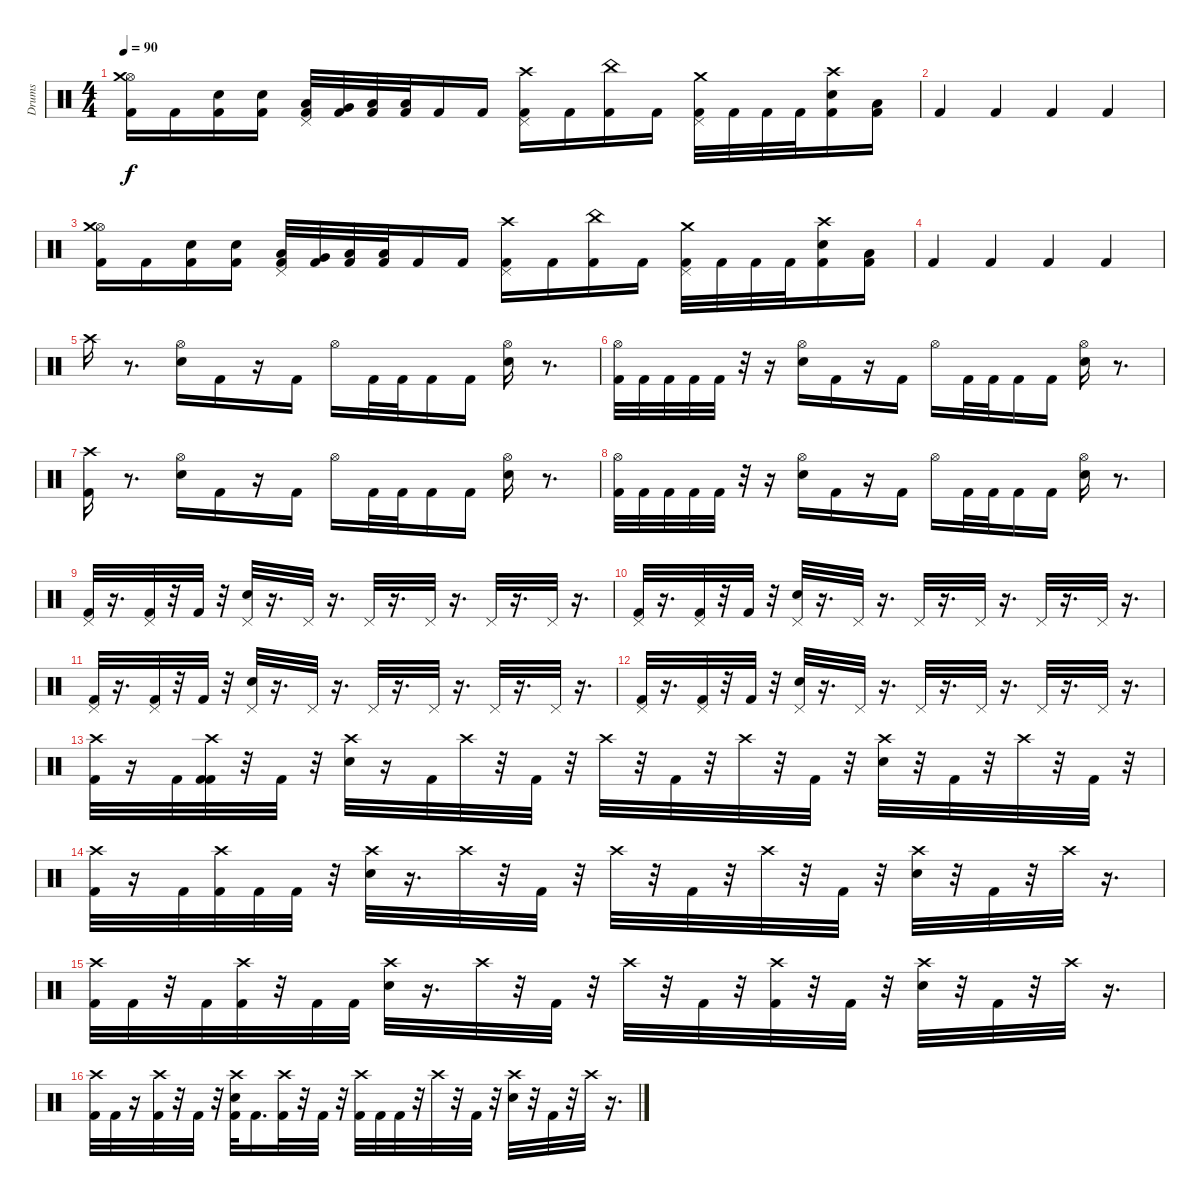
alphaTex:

\track ("Drums" "Drums") {instrument percussion}
\staff {score}
\articulation defaults
\ts (4 4)
\tempo 90
\clef neutral
\ks c
("Kick (hit) 2" "Hi-Hat (open)" "Crash medium (hit)").16{dy f} "Kick (hit) 2".16 ("Kick (hit) 2" "Electric Snare (hit)").16 ("Kick (hit) 2" "Electric Snare (hit)").16 ("Kick (hit) 2" "Pedal Hi-Hat (hit)" "Low Tom (hit)").32 ("Kick (hit) 2" "Very Low Tom (hit)").32 ("Kick (hit) 2" "Low Floor Tom (hit)").32 ("Kick (hit) 2" "Low Floor Tom (hit)").32 "Kick (hit) 2".16 "Kick (hit) 2".16 ("Kick (hit) 2" "Pedal Hi-Hat (hit)" "Crash high (hit)").16 "Kick (hit) 2".16 ("Kick (hit) 2" "China (hit)").16 "Kick (hit) 2".16 ("Kick (hit) 2" "Pedal Hi-Hat (hit)" "Crash medium (hit)").32 "Kick (hit) 2".32 "Kick (hit) 2".32 "Kick (hit) 2".32 ("Kick (hit) 2" "Electric Snare (hit)" "Crash high (hit)").16 ("Kick (hit) 2" "Low Floor Tom (hit)").16 |
"Kick (hit) 2".4 "Kick (hit) 2".4 "Kick (hit) 2".4 "Kick (hit) 2".4 |
("Kick (hit) 2" "Hi-Hat (open)" "Crash medium (hit)").16 "Kick (hit) 2".16 ("Kick (hit) 2" "Electric Snare (hit)").16 ("Kick (hit) 2" "Electric Snare (hit)").16 ("Kick (hit) 2" "Pedal Hi-Hat (hit)" "Low Tom (hit)").32 ("Kick (hit) 2" "Very Low Tom (hit)").32 ("Kick (hit) 2" "Low Floor Tom (hit)").32 ("Kick (hit) 2" "Low Floor Tom (hit)").32 "Kick (hit) 2".16 "Kick (hit) 2".16 ("Kick (hit) 2" "Pedal Hi-Hat (hit)" "Crash high (hit)").16 "Kick (hit) 2".16 ("Kick (hit) 2" "China (hit)").16 "Kick (hit) 2".16 ("Kick (hit) 2" "Pedal Hi-Hat (hit)" "Crash medium (hit)").32 "Kick (hit) 2".32 "Kick (hit) 2".32 "Kick (hit) 2".32 ("Kick (hit) 2" "Electric Snare (hit)" "Crash high (hit)").16 ("Kick (hit) 2" "Low Floor Tom (hit)").16 |
"Kick (hit) 2".4 "Kick (hit) 2".4 "Kick (hit) 2".4 "Kick (hit) 2".4 |
"Crash high (hit)".16 r.8{d} ("Electric Snare (hit)" "Hi-Hat (open)").16 "Kick (hit) 2".16 r.16 "Kick (hit) 2".16 "Hi-Hat (open)".16 "Kick (hit) 2".32 "Kick (hit) 2".32 "Kick (hit) 2".16 "Kick (hit) 2".16 ("Electric Snare (hit)" "Hi-Hat (open)").16 r.8{d} |
("Kick (hit) 2" "Hi-Hat (open)").32 "Kick (hit) 2".32 "Kick (hit) 2".32 "Kick (hit) 2".32 "Kick (hit) 2".32 r.32 r.16 ("Electric Snare (hit)" "Hi-Hat (open)").16 "Kick (hit) 2".16 r.16 "Kick (hit) 2".16 "Hi-Hat (open)".16 "Kick (hit) 2".32 "Kick (hit) 2".32 "Kick (hit) 2".16 "Kick (hit) 2".16 ("Electric Snare (hit)" "Hi-Hat (open)").16 r.8{d} |
("Crash high (hit)" "Kick (hit) 2").16 r.8{d} ("Electric Snare (hit)" "Hi-Hat (open)").16 "Kick (hit) 2".16 r.16 "Kick (hit) 2".16 "Hi-Hat (open)".16 "Kick (hit) 2".32 "Kick (hit) 2".32 "Kick (hit) 2".16 "Kick (hit) 2".16 ("Electric Snare (hit)" "Hi-Hat (open)").16 r.8{d} |
("Kick (hit) 2" "Hi-Hat (open)").32 "Kick (hit) 2".32 "Kick (hit) 2".32 "Kick (hit) 2".32 "Kick (hit) 2".32 r.32 r.16 ("Electric Snare (hit)" "Hi-Hat (open)").16 "Kick (hit) 2".16 r.16 "Kick (hit) 2".16 "Hi-Hat (open)".16 "Kick (hit) 2".32 "Kick (hit) 2".32 "Kick (hit) 2".16 "Kick (hit) 2".16 ("Electric Snare (hit)" "Hi-Hat (open)").16 r.8{d} |
("Kick (hit) 2" "Pedal Hi-Hat (hit)").32 r.16{d} ("Kick (hit) 2" "Pedal Hi-Hat (hit)").32 r.32 "Kick (hit) 2".32 r.32 ("Electric Snare (hit)" "Pedal Hi-Hat (hit)").32 r.16{d} "Pedal Hi-Hat (hit)".32 r.16{d} "Pedal Hi-Hat (hit)".32 r.16{d} "Pedal Hi-Hat (hit)".32 r.16{d} "Pedal Hi-Hat (hit)".32 r.16{d} "Pedal Hi-Hat (hit)".32 r.16{d} |
("Kick (hit) 2" "Pedal Hi-Hat (hit)").32 r.16{d} ("Kick (hit) 2" "Pedal Hi-Hat (hit)").32 r.32 "Kick (hit) 2".32 r.32 ("Electric Snare (hit)" "Pedal Hi-Hat (hit)").32 r.16{d} "Pedal Hi-Hat (hit)".32 r.16{d} "Pedal Hi-Hat (hit)".32 r.16{d} "Pedal Hi-Hat (hit)".32 r.16{d} "Pedal Hi-Hat (hit)".32 r.16{d} "Pedal Hi-Hat (hit)".32 r.16{d} |
("Kick (hit) 2" "Pedal Hi-Hat (hit)").32 r.16{d} ("Kick (hit) 2" "Pedal Hi-Hat (hit)").32 r.32 "Kick (hit) 2".32 r.32 ("Electric Snare (hit)" "Pedal Hi-Hat (hit)").32 r.16{d} "Pedal Hi-Hat (hit)".32 r.16{d} "Pedal Hi-Hat (hit)".32 r.16{d} "Pedal Hi-Hat (hit)".32 r.16{d} "Pedal Hi-Hat (hit)".32 r.16{d} "Pedal Hi-Hat (hit)".32 r.16{d} |
("Kick (hit) 2" "Pedal Hi-Hat (hit)").32 r.16{d} ("Kick (hit) 2" "Pedal Hi-Hat (hit)").32 r.32 "Kick (hit) 2".32 r.32 ("Electric Snare (hit)" "Pedal Hi-Hat (hit)").32 r.16{d} "Pedal Hi-Hat (hit)".32 r.16{d} "Pedal Hi-Hat (hit)".32 r.16{d} "Pedal Hi-Hat (hit)".32 r.16{d} "Pedal Hi-Hat (hit)".32 r.16{d} "Pedal Hi-Hat (hit)".32 r.16{d} |
("Kick (hit) 2" "Crash high (hit)").32 r.16 "Kick (hit) 2".32 ("Kick (hit) 2" "Kick (hit) 2" "Crash high (hit)").32 r.32 "Kick (hit) 2".32 r.32 ("Snare (hit) 2" "Crash high (hit)").32 r.16 "Kick (hit) 2".32 "Crash high (hit)".32 r.32 "Kick (hit) 2".32 r.32 "Crash high (hit)".32 r.32 "Kick (hit) 2".32 r.32 "Crash high (hit)".32 r.32 "Kick (hit) 2".32 r.32 ("Snare (hit) 2" "Crash high (hit)").32 r.32 "Kick (hit) 2".32 r.32 "Crash high (hit)".32 r.32 "Kick (hit) 2".32 r.32 |
("Kick (hit) 2" "Crash high (hit)").32 r.16 "Kick (hit) 2".32 ("Kick (hit) 2" "Crash high (hit)").32 "Kick (hit) 2".32 "Kick (hit) 2".32 r.32 ("Snare (hit) 2" "Crash high (hit)").32 r.16{d} "Crash high (hit)".32 r.32 "Kick (hit) 2".32 r.32 "Crash high (hit)".32 r.32 "Kick (hit) 2".32 r.32 "Crash high (hit)".32 r.32 "Kick (hit) 2".32 r.32 ("Snare (hit) 2" "Crash high (hit)").32 r.32 "Kick (hit) 2".32 r.32 "Crash high (hit)".32 r.16{d} |
("Kick (hit) 2" "Crash high (hit)").32 "Kick (hit) 2".32 r.32 "Kick (hit) 2".32 ("Kick (hit) 2" "Crash high (hit)").32 r.32 "Kick (hit) 2".32 "Kick (hit) 2".32 ("Snare (hit) 2" "Crash high (hit)").32 r.16{d} "Crash high (hit)".32 r.32 "Kick (hit) 2".32 r.32 "Crash high (hit)".32 r.32 "Kick (hit) 2".32 r.32 ("Kick (hit) 2" "Crash high (hit)").32 r.32 "Kick (hit) 2".32 r.32 ("Snare (hit) 2" "Crash high (hit)").32 r.32 "Kick (hit) 2".32 r.32 "Crash high (hit)".32 r.16{d} |
("Kick (hit) 2" "Crash high (hit)").32 "Kick (hit) 2".32 r.16 ("Kick (hit) 2" "Crash high (hit)").32 r.32 "Kick (hit) 2".32 r.32 ("Snare (hit) 2" "Crash high (hit)" "Kick (hit) 2").32 "Kick (hit) 2".16{d} ("Crash high (hit)" "Kick (hit) 2").32 r.32 "Kick (hit) 2".32 r.32 ("Crash high (hit)" "Kick (hit) 2").32 "Kick (hit) 2".32 "Kick (hit) 2".32 r.32 "Crash high (hit)".32 r.32 "Kick (hit) 2".32 r.32 ("Snare (hit) 2" "Crash high (hit)").32 r.32 "Kick (hit) 2".32 r.32 "Crash high (hit)".32 r.16{d}
